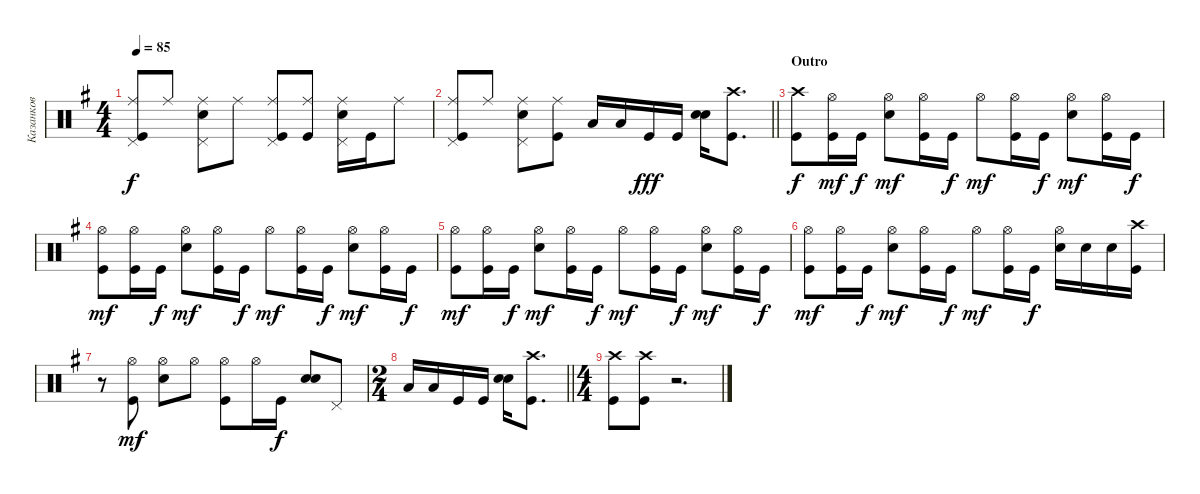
\track ("Казанков" "Казанков") {instrument percussion}
\staff {score}
\articulation defaults
\ts (4 4)
\tempo 85
\clef neutral
\ks eminor
("Kick (hit)" "Ride (middle)" "Pedal Hi-Hat (hit)").8{dy f} "Ride (middle)".8 ("Ride (middle)" "Snare (hit) 2" "Pedal Hi-Hat (hit)").8 "Ride (middle)".8 ("Ride (middle)" "Kick (hit)" "Pedal Hi-Hat (hit)").8 ("Kick (hit)" "Ride (middle)").8 ("Snare (hit) 2" "Ride (middle)" "Pedal Hi-Hat (hit)").16 "Kick (hit)".16 "Ride (middle)".8 |
\barLineRight lightlight
("Kick (hit)" "Ride (middle)" "Pedal Hi-Hat (hit)").8 "Ride (middle)".8 ("Ride (middle)" "Snare (hit) 2" "Pedal Hi-Hat (hit)").8 ("Ride (middle)" "Kick (hit)").8 "Low Floor Tom (hit)".16 "Low Floor Tom (hit)".16 "Kick (hit)".16{dy fff} "Kick (hit)".16 ("Snare (hit) 2" "Snare (hit) 2").16{bd 480} ("Kick (hit)" "Crash high (hit)").8{d} |
\section ("" "Outro")
("Kick (hit)" "Crash high (hit)").8{dy f} ("Kick (hit)" "Hi-Hat (open)").16{dy mf} "Kick (hit)".16{dy f} ("Snare (hit) 2" "Hi-Hat (open)").8{dy mf} ("Kick (hit)" "Hi-Hat (open)").16 "Kick (hit)".16{dy f} "Hi-Hat (open)".8{dy mf} ("Kick (hit)" "Hi-Hat (open)").16 "Kick (hit)".16{dy f} ("Snare (hit) 2" "Hi-Hat (open)").8{dy mf} ("Kick (hit)" "Hi-Hat (open)").16 "Kick (hit)".16{dy f} |
("Kick (hit)" "Hi-Hat (open)").8{dy mf} ("Kick (hit)" "Hi-Hat (open)").16 "Kick (hit)".16{dy f} ("Snare (hit) 2" "Hi-Hat (open)").8{dy mf} ("Kick (hit)" "Hi-Hat (open)").16 "Kick (hit)".16{dy f} "Hi-Hat (open)".8{dy mf} ("Kick (hit)" "Hi-Hat (open)").16 "Kick (hit)".16{dy f} ("Snare (hit) 2" "Hi-Hat (open)").8{dy mf} ("Kick (hit)" "Hi-Hat (open)").16 "Kick (hit)".16{dy f} |
("Kick (hit)" "Hi-Hat (open)").8{dy mf} ("Kick (hit)" "Hi-Hat (open)").16 "Kick (hit)".16{dy f} ("Snare (hit) 2" "Hi-Hat (open)").8{dy mf} ("Kick (hit)" "Hi-Hat (open)").16 "Kick (hit)".16{dy f} "Hi-Hat (open)".8{dy mf} ("Kick (hit)" "Hi-Hat (open)").16 "Kick (hit)".16{dy f} ("Snare (hit) 2" "Hi-Hat (open)").8{dy mf} ("Kick (hit)" "Hi-Hat (open)").16 "Kick (hit)".16{dy f} |
("Kick (hit)" "Hi-Hat (open)").8{dy mf} ("Kick (hit)" "Hi-Hat (open)").16 "Kick (hit)".16{dy f} ("Snare (hit) 2" "Hi-Hat (open)").8{dy mf} ("Kick (hit)" "Hi-Hat (open)").16 "Kick (hit)".16{dy f} "Hi-Hat (open)".8{dy mf} ("Kick (hit)" "Hi-Hat (open)").16 "Kick (hit)".16{dy f} ("Snare (hit) 2" "Hi-Hat (open)").16 "Snare (hit) 2".16 "Snare (hit) 2".16 ("Kick (hit)" "Crash high (hit)").16 |
r.8 ("Hi-Hat (open)" "Kick (hit)").8{dy mf} ("Hi-Hat (open)" "Snare (hit) 2").8 "Hi-Hat (open)".8 ("Hi-Hat (open)" "Kick (hit)").8 "Hi-Hat (open)".16 "Kick (hit)".16{dy f} ("Snare (hit) 2" "Snare (hit) 2").8{bd 480} "Pedal Hi-Hat (hit)".8 |
\ts (2 4)
\barLineRight lightlight "Low Floor Tom (hit)".16 "Low Floor Tom (hit)".16 "Kick (hit)".16 "Kick (hit)".16
("Snare (hit) 2" "Snare (hit) 2").16{bd 240} ("Kick (hit)" "Crash high (hit)").8{d} |
\ts (4 4)
("Kick (hit)" "Crash high (hit)").8 ("Kick (hit)" "Crash high (hit)").8 r.2{d}
